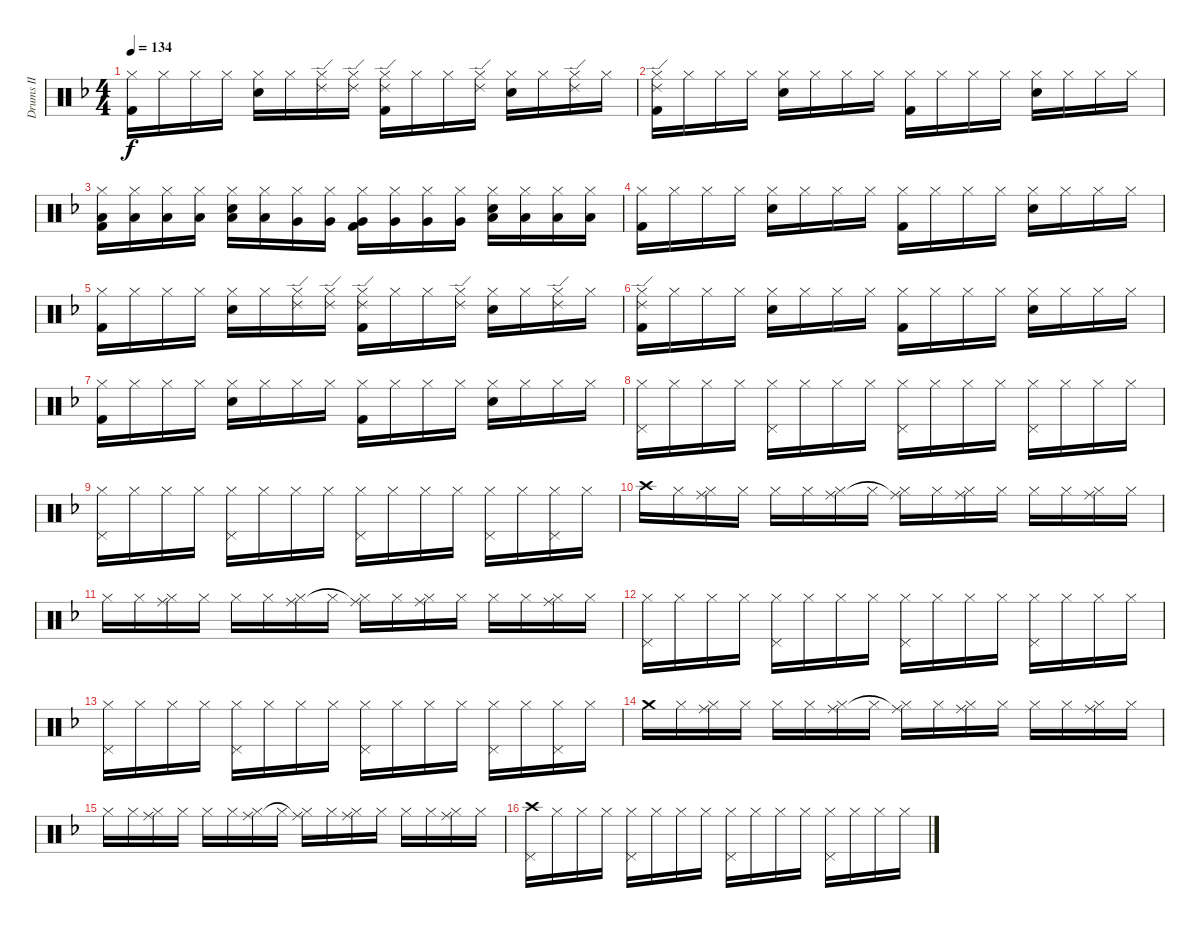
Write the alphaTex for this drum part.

\track ("Drums II" "Drums II") {instrument percussion}
\staff {score}
\articulation defaults
\ts (4 4)
\tempo 134
\clef neutral
\ks f
("Hi-Hat (closed)" "Kick (hit) 2").16{dy f} "Hi-Hat (closed)".16 "Hi-Hat (closed)".16 "Hi-Hat (closed)".16 ("Hi-Hat (closed)" "Snare (hit) 2").16 "Hi-Hat (closed)".16 ("Hi-Hat (closed)" "Ride (edge) 2").16 ("Hi-Hat (closed)" "Ride (edge) 2").16 ("Hi-Hat (closed)" "Ride (edge) 2" "Kick (hit) 2").16 "Hi-Hat (closed)".16 "Hi-Hat (closed)".16 ("Hi-Hat (closed)" "Ride (edge) 2").16 ("Hi-Hat (closed)" "Snare (hit) 2").16 "Hi-Hat (closed)".16 ("Hi-Hat (closed)" "Ride (edge) 2").16 "Hi-Hat (closed)".16 |
("Hi-Hat (closed)" "Ride (edge) 2" "Kick (hit) 2").16 "Hi-Hat (closed)".16 "Hi-Hat (closed)".16 "Hi-Hat (closed)".16 ("Hi-Hat (closed)" "Snare (hit) 2").16 "Hi-Hat (closed)".16 "Hi-Hat (closed)".16 "Hi-Hat (closed)".16 ("Hi-Hat (closed)" "Kick (hit) 2").16 "Hi-Hat (closed)".16 "Hi-Hat (closed)".16 "Hi-Hat (closed)".16 ("Hi-Hat (closed)" "Snare (hit) 2").16 "Hi-Hat (closed)".16 "Hi-Hat (closed)".16 "Hi-Hat (closed)".16 |
("Hi-Hat (closed)" "Low Tom (hit)" "Kick (hit) 2").16 ("Hi-Hat (closed)" "Low Tom (hit)").16 ("Hi-Hat (closed)" "Low Tom (hit)").16 ("Hi-Hat (closed)" "Low Tom (hit)").16 ("Hi-Hat (closed)" "Low Tom (hit)" "Snare (hit) 2").16 ("Hi-Hat (closed)" "Low Tom (hit)").16 ("Hi-Hat (closed)" "Very Low Tom (hit)").16 ("Hi-Hat (closed)" "Very Low Tom (hit)").16 ("Hi-Hat (closed)" "Very Low Tom (hit)" "Kick (hit) 2").16 ("Hi-Hat (closed)" "Very Low Tom (hit)").16 ("Hi-Hat (closed)" "Very Low Tom (hit)").16 ("Hi-Hat (closed)" "Very Low Tom (hit)").16 ("Hi-Hat (closed)" "Low Floor Tom (hit)" "Snare (hit) 2").16 ("Hi-Hat (closed)" "Low Floor Tom (hit)").16 ("Hi-Hat (closed)" "Low Floor Tom (hit)").16 ("Hi-Hat (closed)" "Low Floor Tom (hit)").16 |
("Hi-Hat (closed)" "Kick (hit) 2").16 "Hi-Hat (closed)".16 "Hi-Hat (closed)".16 "Hi-Hat (closed)".16 ("Hi-Hat (closed)" "Snare (hit) 2").16 "Hi-Hat (closed)".16 "Hi-Hat (closed)".16 "Hi-Hat (closed)".16 ("Hi-Hat (closed)" "Kick (hit) 2").16 "Hi-Hat (closed)".16 "Hi-Hat (closed)".16 "Hi-Hat (closed)".16 ("Hi-Hat (closed)" "Snare (hit) 2").16 "Hi-Hat (closed)".16 "Hi-Hat (closed)".16 "Hi-Hat (closed)".16 |
("Hi-Hat (closed)" "Kick (hit) 2").16 "Hi-Hat (closed)".16 "Hi-Hat (closed)".16 "Hi-Hat (closed)".16 ("Hi-Hat (closed)" "Snare (hit) 2").16 "Hi-Hat (closed)".16 ("Hi-Hat (closed)" "Ride (edge) 2").16 ("Hi-Hat (closed)" "Ride (edge) 2").16 ("Hi-Hat (closed)" "Ride (edge) 2" "Kick (hit) 2").16 "Hi-Hat (closed)".16 "Hi-Hat (closed)".16 ("Hi-Hat (closed)" "Ride (edge) 2").16 ("Hi-Hat (closed)" "Snare (hit) 2").16 "Hi-Hat (closed)".16 ("Hi-Hat (closed)" "Ride (edge) 2").16 "Hi-Hat (closed)".16 |
("Hi-Hat (closed)" "Ride (edge) 2" "Kick (hit) 2").16 "Hi-Hat (closed)".16 "Hi-Hat (closed)".16 "Hi-Hat (closed)".16 ("Hi-Hat (closed)" "Snare (hit) 2").16 "Hi-Hat (closed)".16 "Hi-Hat (closed)".16 "Hi-Hat (closed)".16 ("Hi-Hat (closed)" "Kick (hit) 2").16 "Hi-Hat (closed)".16 "Hi-Hat (closed)".16 "Hi-Hat (closed)".16 ("Hi-Hat (closed)" "Snare (hit) 2").16 "Hi-Hat (closed)".16 "Hi-Hat (closed)".16 "Hi-Hat (closed)".16 |
("Hi-Hat (closed)" "Kick (hit) 2").16 "Hi-Hat (closed)".16 "Hi-Hat (closed)".16 "Hi-Hat (closed)".16 ("Hi-Hat (closed)" "Snare (hit) 2").16 "Hi-Hat (closed)".16 "Hi-Hat (closed)".16 "Hi-Hat (closed)".16 ("Hi-Hat (closed)" "Kick (hit) 2").16 "Hi-Hat (closed)".16 "Hi-Hat (closed)".16 "Hi-Hat (closed)".16 ("Hi-Hat (closed)" "Snare (hit) 2").16 "Hi-Hat (closed)".16 "Hi-Hat (closed)".16 "Hi-Hat (closed)".16 |
("Hi-Hat (closed)" "Pedal Hi-Hat (hit)").16 "Hi-Hat (closed)".16 "Hi-Hat (closed)".16 "Hi-Hat (closed)".16 ("Hi-Hat (closed)" "Pedal Hi-Hat (hit)").16 "Hi-Hat (closed)".16 "Hi-Hat (closed)".16 "Hi-Hat (closed)".16 ("Hi-Hat (closed)" "Pedal Hi-Hat (hit)").16 "Hi-Hat (closed)".16 "Hi-Hat (closed)".16 "Hi-Hat (closed)".16 ("Hi-Hat (closed)" "Pedal Hi-Hat (hit)").16 "Hi-Hat (closed)".16 "Hi-Hat (closed)".16 "Hi-Hat (closed)".16 |
("Hi-Hat (closed)" "Pedal Hi-Hat (hit)").16 "Hi-Hat (closed)".16 "Hi-Hat (closed)".16 "Hi-Hat (closed)".16 ("Hi-Hat (closed)" "Pedal Hi-Hat (hit)").16 "Hi-Hat (closed)".16 "Hi-Hat (closed)".16 "Hi-Hat (closed)".16 ("Hi-Hat (closed)" "Pedal Hi-Hat (hit)").16 "Hi-Hat (closed)".16 "Hi-Hat (closed)".16 "Hi-Hat (closed)".16 ("Hi-Hat (closed)" "Pedal Hi-Hat (hit)").16 "Hi-Hat (closed)".16 ("Hi-Hat (closed)" "Pedal Hi-Hat (hit)").16 "Hi-Hat (closed)".16 |
"Crash high (hit)".16 "Hi-Hat (closed)".16 ("Hi-Hat (closed)" "Ride (middle)").16 "Hi-Hat (closed)".16 "Hi-Hat (closed)".16 "Hi-Hat (closed)".16 ("Hi-Hat (closed)" "Ride (middle)").16 "Hi-Hat (closed)".16 ("Hi-Hat (closed)" "Ride (middle)"{t}).16 "Hi-Hat (closed)".16 ("Hi-Hat (closed)" "Ride (middle)").16 "Hi-Hat (closed)".16 "Hi-Hat (closed)".16 "Hi-Hat (closed)".16 ("Hi-Hat (closed)" "Ride (middle)").16 "Hi-Hat (closed)".16 |
"Hi-Hat (closed)".16 "Hi-Hat (closed)".16 ("Hi-Hat (closed)" "Ride (middle)").16 "Hi-Hat (closed)".16 "Hi-Hat (closed)".16 "Hi-Hat (closed)".16 ("Hi-Hat (closed)" "Ride (middle)").16 "Hi-Hat (closed)".16 ("Hi-Hat (closed)" "Ride (middle)"{t}).16 "Hi-Hat (closed)".16 ("Hi-Hat (closed)" "Ride (middle)").16 "Hi-Hat (closed)".16 "Hi-Hat (closed)".16 "Hi-Hat (closed)".16 ("Hi-Hat (closed)" "Ride (middle)").16 "Hi-Hat (closed)".16 |
("Hi-Hat (closed)" "Pedal Hi-Hat (hit)").16 "Hi-Hat (closed)".16 "Hi-Hat (closed)".16 "Hi-Hat (closed)".16 ("Hi-Hat (closed)" "Pedal Hi-Hat (hit)").16 "Hi-Hat (closed)".16 "Hi-Hat (closed)".16 "Hi-Hat (closed)".16 ("Hi-Hat (closed)" "Pedal Hi-Hat (hit)").16 "Hi-Hat (closed)".16 "Hi-Hat (closed)".16 "Hi-Hat (closed)".16 ("Hi-Hat (closed)" "Pedal Hi-Hat (hit)").16 "Hi-Hat (closed)".16 "Hi-Hat (closed)".16 "Hi-Hat (closed)".16 |
("Hi-Hat (closed)" "Pedal Hi-Hat (hit)").16 "Hi-Hat (closed)".16 "Hi-Hat (closed)".16 "Hi-Hat (closed)".16 ("Hi-Hat (closed)" "Pedal Hi-Hat (hit)").16 "Hi-Hat (closed)".16 "Hi-Hat (closed)".16 "Hi-Hat (closed)".16 ("Hi-Hat (closed)" "Pedal Hi-Hat (hit)").16 "Hi-Hat (closed)".16 "Hi-Hat (closed)".16 "Hi-Hat (closed)".16 ("Hi-Hat (closed)" "Pedal Hi-Hat (hit)").16 "Hi-Hat (closed)".16 ("Hi-Hat (closed)" "Pedal Hi-Hat (hit)").16 "Hi-Hat (closed)".16 |
"Crash medium (hit)".16 "Hi-Hat (closed)".16 ("Hi-Hat (closed)" "Ride (middle)").16 "Hi-Hat (closed)".16 "Hi-Hat (closed)".16 "Hi-Hat (closed)".16 ("Hi-Hat (closed)" "Ride (middle)").16 "Hi-Hat (closed)".16 ("Hi-Hat (closed)" "Ride (middle)"{t}).16 "Hi-Hat (closed)".16 ("Hi-Hat (closed)" "Ride (middle)").16 "Hi-Hat (closed)".16 "Hi-Hat (closed)".16 "Hi-Hat (closed)".16 ("Hi-Hat (closed)" "Ride (middle)").16 "Hi-Hat (closed)".16 |
"Hi-Hat (closed)".16 "Hi-Hat (closed)".16 ("Hi-Hat (closed)" "Ride (middle)").16 "Hi-Hat (closed)".16 "Hi-Hat (closed)".16 "Hi-Hat (closed)".16 ("Hi-Hat (closed)" "Ride (middle)").16 "Hi-Hat (closed)".16 ("Hi-Hat (closed)" "Ride (middle)"{t}).16 "Hi-Hat (closed)".16 ("Hi-Hat (closed)" "Ride (middle)").16 "Hi-Hat (closed)".16 "Hi-Hat (closed)".16 "Hi-Hat (closed)".16 ("Hi-Hat (closed)" "Ride (middle)").16 "Hi-Hat (closed)".16 |
("Crash high (hit)" "Pedal Hi-Hat (hit)").16 "Hi-Hat (closed)".16 "Hi-Hat (closed)".16 "Hi-Hat (closed)".16 ("Hi-Hat (closed)" "Pedal Hi-Hat (hit)").16 "Hi-Hat (closed)".16 "Hi-Hat (closed)".16 "Hi-Hat (closed)".16 ("Hi-Hat (closed)" "Pedal Hi-Hat (hit)").16 "Hi-Hat (closed)".16 "Hi-Hat (closed)".16 "Hi-Hat (closed)".16 ("Hi-Hat (closed)" "Pedal Hi-Hat (hit)").16 "Hi-Hat (closed)".16 "Hi-Hat (closed)".16 "Hi-Hat (closed)".16
